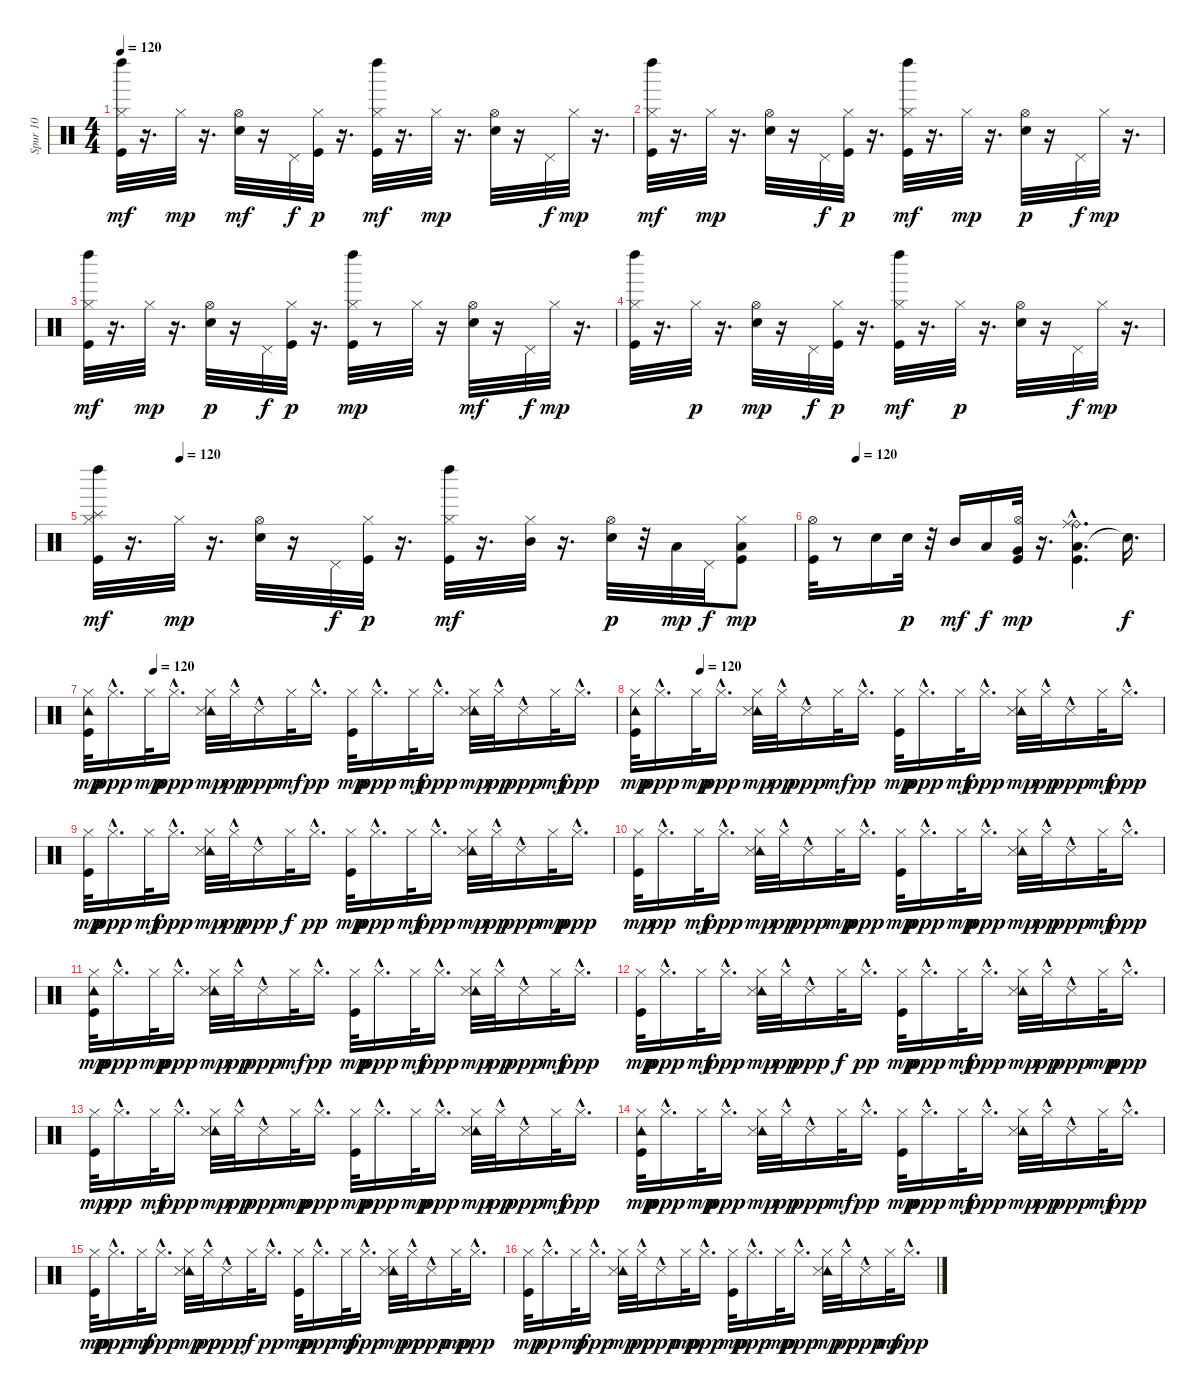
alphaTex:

\track ("Spur 10" "Spur 10") {instrument percussion}
\staff {score}
\articulation defaults
\ts (4 4)
\tempo 120
\clef neutral
\ks c
("Hi-Hat (closed)" "Left Maraca (hit)" "Kick (hit)").32{dy mf} r.16{d} "Hi-Hat (closed)".32{dy mp} r.16{d} ("Hi-Hat (open)" "Electric Snare (hit)").32{dy mf} r.16 "Pedal Hi-Hat (hit)".32{dy f} ("Hi-Hat (closed)" "Kick (hit)").32{dy p} r.16{d} ("Hi-Hat (closed)" "Left Maraca (hit)" "Kick (hit)").32{dy mf} r.16{d} "Hi-Hat (closed)".32{dy mp} r.16{d} ("Hi-Hat (open)" "Electric Snare (hit)").32 r.16 "Pedal Hi-Hat (hit)".32{dy f} "Hi-Hat (closed)".32{dy mp} r.16{d} |
("Hi-Hat (closed)" "Left Maraca (hit)" "Kick (hit)").32{dy mf} r.16{d} "Hi-Hat (closed)".32{dy mp} r.16{d} ("Hi-Hat (open)" "Electric Snare (hit)").32 r.16 "Pedal Hi-Hat (hit)".32{dy f} ("Hi-Hat (closed)" "Kick (hit)").32{dy p} r.16{d} ("Hi-Hat (closed)" "Left Maraca (hit)" "Kick (hit)").32{dy mf} r.16{d} "Hi-Hat (closed)".32{dy mp} r.16{d} ("Hi-Hat (open)" "Electric Snare (hit)").32{dy p} r.16 "Pedal Hi-Hat (hit)".32{dy f} "Hi-Hat (closed)".32{dy mp} r.16{d} |
("Hi-Hat (closed)" "Left Maraca (hit)" "Kick (hit)").32{dy mf} r.16{d} "Hi-Hat (closed)".32{dy mp} r.16{d} ("Hi-Hat (open)" "Electric Snare (hit)").32{dy p} r.16 "Pedal Hi-Hat (hit)".32{dy f} ("Hi-Hat (closed)" "Kick (hit)").32{dy p} r.16{d} ("Hi-Hat (closed)" "Left Maraca (hit)" "Kick (hit)").32{dy mp} r.8 "Hi-Hat (closed)".32 r.16 ("Hi-Hat (open)" "Electric Snare (hit)").32{dy mf} r.16 "Pedal Hi-Hat (hit)".32{dy f} "Hi-Hat (closed)".32{dy mp} r.16{d} |
("Hi-Hat (closed)" "Left Maraca (hit)" "Kick (hit)").32 r.16{d} "Hi-Hat (closed)".32{dy p} r.16{d} ("Hi-Hat (open)" "Electric Snare (hit)").32{dy mp} r.16 "Pedal Hi-Hat (hit)".32{dy f} ("Hi-Hat (closed)" "Kick (hit)").32{dy p} r.16{d} ("Hi-Hat (closed)" "Left Maraca (hit)" "Kick (hit)").32{dy mf} r.16{d} "Hi-Hat (closed)".32{dy p} r.16{d} ("Hi-Hat (open)" "Electric Snare (hit)").32 r.16 "Pedal Hi-Hat (hit)".32{dy f} "Hi-Hat (closed)".32{dy mp} r.16{d} |
\tempo (120 0.125)
("Hi-Hat (closed)" "Left Maraca (hit)" "Kick (hit)" "Splash (hit)").32{dy mf} r.16{d} "Hi-Hat (closed)".32{dy mp} r.16{d} ("Hi-Hat (open)" "Electric Snare (hit)").32 r.16 "Pedal Hi-Hat (hit)".32{dy f} ("Hi-Hat (closed)" "Kick (hit)").32{dy p} r.16{d} ("Hi-Hat (closed)" "Left Maraca (hit)" "Kick (hit)").32{dy mf} r.16{d} ("Hi-Hat (closed)" "Mid Tom (hit)").32 r.16{d} ("Hi-Hat (open)" "Electric Snare (hit)").32{dy p} r.32 "Low Tom (hit)".32{dy mp} "Pedal Hi-Hat (hit)".32{dy f} ("Hi-Hat (closed)" "Low Tom (hit)" "Kick (hit)").8{dy mp} |
\tempo (120 0.125)
("Hi-Hat (open)" "Kick (hit)").32 r.8 "Snare (hit) 2".16 "Electric Snare (hit)".32{dy p} r.32 "Mid Tom (hit)".16{dy mf} "Low Tom (hit)".16{dy f} ("Hi-Hat (open)" "Very Low Tom (hit)" "Kick (hit)").32{dy mp} r.16{d} ("Low Floor Tom (hit)"{hac} "Ride (bell)" "Ride (middle)" "Kick (hit)").4{d} "Snare (hit)"{t}.16{d dy f} |
\tempo (120 0.125)
("Tambourine (hit)" "Hi-Hat (closed)" "Kick (hit)").32{dy mp} "Hi-Hat (closed)"{hac}.16{d dy ppp} "Hi-Hat (closed)".32{dy mp} "Hi-Hat (closed)"{hac}.16{d dy ppp} ("Tambourine (hit)" "Snare (side stick) 3" "Hi-Hat (closed)").32{dy mp} "Hi-Hat (closed)"{hac}.32{dy pp} "Snare (side stick) 3"{hac}.16{dy ppp} "Hi-Hat (closed)".32{dy mf} "Hi-Hat (closed)"{hac}.16{d dy pp} ("Hi-Hat (closed)" "Kick (hit)").32{dy mp} "Hi-Hat (closed)"{hac}.16{d dy ppp} "Hi-Hat (closed)".32{dy mf} "Hi-Hat (closed)"{hac}.16{d dy ppp} ("Tambourine (hit)" "Snare (side stick) 3" "Hi-Hat (closed)").32{dy mp} "Hi-Hat (closed)"{hac}.32{dy pp} "Snare (side stick) 3"{hac}.16{dy ppp} "Hi-Hat (closed)".32{dy mf} "Hi-Hat (closed)"{hac}.16{d dy ppp} |
\tempo (120 0.125)
("Tambourine (hit)" "Hi-Hat (closed)" "Kick (hit)").32{dy mp} "Hi-Hat (closed)"{hac}.16{d dy ppp} "Hi-Hat (closed)".32{dy mp} "Hi-Hat (closed)"{hac}.16{d dy ppp} ("Tambourine (hit)" "Snare (side stick) 3" "Hi-Hat (closed)").32{dy mp} "Hi-Hat (closed)"{hac}.32{dy pp} "Snare (side stick) 3"{hac}.16{dy ppp} "Hi-Hat (closed)".32{dy mf} "Hi-Hat (closed)"{hac}.16{d dy pp} ("Hi-Hat (closed)" "Kick (hit)").32{dy mp} "Hi-Hat (closed)"{hac}.16{d dy ppp} "Hi-Hat (closed)".32{dy mf} "Hi-Hat (closed)"{hac}.16{d dy ppp} ("Tambourine (hit)" "Snare (side stick) 3" "Hi-Hat (closed)").32{dy mp} "Hi-Hat (closed)"{hac}.32{dy pp} "Snare (side stick) 3"{hac}.16{dy ppp} "Hi-Hat (closed)".32{dy mf} "Hi-Hat (closed)"{hac}.16{d dy ppp} |
("Hi-Hat (closed)" "Kick (hit)").32{dy mp} "Hi-Hat (closed)"{hac}.16{d dy ppp} "Hi-Hat (closed)".32{dy mf} "Hi-Hat (closed)"{hac}.16{d dy ppp} ("Tambourine (hit)" "Snare (side stick) 3" "Hi-Hat (closed)").32{dy mp} "Hi-Hat (closed)"{hac}.32{dy pp} "Snare (side stick) 3"{hac}.16{dy ppp} "Hi-Hat (closed)".32{dy f} "Hi-Hat (closed)"{hac}.16{d dy pp} ("Hi-Hat (closed)" "Kick (hit)").32{dy mp} "Hi-Hat (closed)"{hac}.16{d dy ppp} "Hi-Hat (closed)".32{dy mf} "Hi-Hat (closed)"{hac}.16{d dy ppp} ("Tambourine (hit)" "Snare (side stick) 3" "Hi-Hat (closed)").32{dy mp} "Hi-Hat (closed)"{hac}.32{dy pp} "Snare (side stick) 3"{hac}.16{dy ppp} "Hi-Hat (closed)".32{dy mp} "Hi-Hat (closed)"{hac}.16{d dy ppp} |
("Hi-Hat (closed)" "Kick (hit)").32{dy mp} "Hi-Hat (closed)"{hac}.16{d dy pp} "Hi-Hat (closed)".32{dy mf} "Hi-Hat (closed)"{hac}.16{d dy ppp} ("Tambourine (hit)" "Snare (side stick) 3" "Hi-Hat (closed)").32{dy mp} "Hi-Hat (closed)"{hac}.32{dy pp} "Snare (side stick) 3"{hac}.16{dy ppp} "Hi-Hat (closed)".32{dy mp} "Hi-Hat (closed)"{hac}.16{d dy ppp} ("Hi-Hat (closed)" "Kick (hit)").32{dy mp} "Hi-Hat (closed)"{hac}.16{d dy ppp} "Hi-Hat (closed)".32{dy mp} "Hi-Hat (closed)"{hac}.16{d dy ppp} ("Tambourine (hit)" "Snare (side stick) 3" "Hi-Hat (closed)").32{dy mp} "Hi-Hat (closed)"{hac}.32{dy pp} "Snare (side stick) 3"{hac}.16{dy ppp} "Hi-Hat (closed)".32{dy mf} "Hi-Hat (closed)"{hac}.16{d dy ppp} |
("Tambourine (hit)" "Hi-Hat (closed)" "Kick (hit)").32{dy mp} "Hi-Hat (closed)"{hac}.16{d dy ppp} "Hi-Hat (closed)".32{dy mp} "Hi-Hat (closed)"{hac}.16{d dy ppp} ("Tambourine (hit)" "Snare (side stick) 3" "Hi-Hat (closed)").32{dy mp} "Hi-Hat (closed)"{hac}.32{dy pp} "Snare (side stick) 3"{hac}.16{dy ppp} "Hi-Hat (closed)".32{dy mf} "Hi-Hat (closed)"{hac}.16{d dy pp} ("Hi-Hat (closed)" "Kick (hit)").32{dy mp} "Hi-Hat (closed)"{hac}.16{d dy ppp} "Hi-Hat (closed)".32{dy mf} "Hi-Hat (closed)"{hac}.16{d dy ppp} ("Tambourine (hit)" "Snare (side stick) 3" "Hi-Hat (closed)").32{dy mp} "Hi-Hat (closed)"{hac}.32{dy pp} "Snare (side stick) 3"{hac}.16{dy ppp} "Hi-Hat (closed)".32{dy mf} "Hi-Hat (closed)"{hac}.16{d dy ppp} |
("Hi-Hat (closed)" "Kick (hit)").32{dy mp} "Hi-Hat (closed)"{hac}.16{d dy ppp} "Hi-Hat (closed)".32{dy mf} "Hi-Hat (closed)"{hac}.16{d dy ppp} ("Tambourine (hit)" "Snare (side stick) 3" "Hi-Hat (closed)").32{dy mp} "Hi-Hat (closed)"{hac}.32{dy pp} "Snare (side stick) 3"{hac}.16{dy ppp} "Hi-Hat (closed)".32{dy f} "Hi-Hat (closed)"{hac}.16{d dy pp} ("Hi-Hat (closed)" "Kick (hit)").32{dy mp} "Hi-Hat (closed)"{hac}.16{d dy ppp} "Hi-Hat (closed)".32{dy mf} "Hi-Hat (closed)"{hac}.16{d dy ppp} ("Tambourine (hit)" "Snare (side stick) 3" "Hi-Hat (closed)").32{dy mp} "Hi-Hat (closed)"{hac}.32{dy pp} "Snare (side stick) 3"{hac}.16{dy ppp} "Hi-Hat (closed)".32{dy mp} "Hi-Hat (closed)"{hac}.16{d dy ppp} |
("Hi-Hat (closed)" "Kick (hit)").32{dy mp} "Hi-Hat (closed)"{hac}.16{d dy pp} "Hi-Hat (closed)".32{dy mf} "Hi-Hat (closed)"{hac}.16{d dy ppp} ("Tambourine (hit)" "Snare (side stick) 3" "Hi-Hat (closed)").32{dy mp} "Hi-Hat (closed)"{hac}.32{dy pp} "Snare (side stick) 3"{hac}.16{dy ppp} "Hi-Hat (closed)".32{dy mp} "Hi-Hat (closed)"{hac}.16{d dy ppp} ("Hi-Hat (closed)" "Kick (hit)").32{dy mp} "Hi-Hat (closed)"{hac}.16{d dy ppp} "Hi-Hat (closed)".32{dy mp} "Hi-Hat (closed)"{hac}.16{d dy ppp} ("Tambourine (hit)" "Snare (side stick) 3" "Hi-Hat (closed)").32{dy mp} "Hi-Hat (closed)"{hac}.32{dy pp} "Snare (side stick) 3"{hac}.16{dy ppp} "Hi-Hat (closed)".32{dy mf} "Hi-Hat (closed)"{hac}.16{d dy ppp} |
("Tambourine (hit)" "Hi-Hat (closed)" "Kick (hit)").32{dy mp} "Hi-Hat (closed)"{hac}.16{d dy ppp} "Hi-Hat (closed)".32{dy mp} "Hi-Hat (closed)"{hac}.16{d dy ppp} ("Tambourine (hit)" "Snare (side stick) 3" "Hi-Hat (closed)").32{dy mp} "Hi-Hat (closed)"{hac}.32{dy pp} "Snare (side stick) 3"{hac}.16{dy ppp} "Hi-Hat (closed)".32{dy mf} "Hi-Hat (closed)"{hac}.16{d dy pp} ("Hi-Hat (closed)" "Kick (hit)").32{dy mp} "Hi-Hat (closed)"{hac}.16{d dy ppp} "Hi-Hat (closed)".32{dy mf} "Hi-Hat (closed)"{hac}.16{d dy ppp} ("Tambourine (hit)" "Snare (side stick) 3" "Hi-Hat (closed)").32{dy mp} "Hi-Hat (closed)"{hac}.32{dy pp} "Snare (side stick) 3"{hac}.16{dy ppp} "Hi-Hat (closed)".32{dy mf} "Hi-Hat (closed)"{hac}.16{d dy ppp} |
("Hi-Hat (closed)" "Kick (hit)").32{dy mp} "Hi-Hat (closed)"{hac}.16{d dy ppp} "Hi-Hat (closed)".32{dy mf} "Hi-Hat (closed)"{hac}.16{d dy ppp} ("Tambourine (hit)" "Snare (side stick) 3" "Hi-Hat (closed)").32{dy mp} "Hi-Hat (closed)"{hac}.32{dy pp} "Snare (side stick) 3"{hac}.16{dy ppp} "Hi-Hat (closed)".32{dy f} "Hi-Hat (closed)"{hac}.16{d dy pp} ("Hi-Hat (closed)" "Kick (hit)").32{dy mp} "Hi-Hat (closed)"{hac}.16{d dy ppp} "Hi-Hat (closed)".32{dy mf} "Hi-Hat (closed)"{hac}.16{d dy ppp} ("Tambourine (hit)" "Snare (side stick) 3" "Hi-Hat (closed)").32{dy mp} "Hi-Hat (closed)"{hac}.32{dy pp} "Snare (side stick) 3"{hac}.16{dy ppp} "Hi-Hat (closed)".32{dy mp} "Hi-Hat (closed)"{hac}.16{d dy ppp} |
("Hi-Hat (closed)" "Kick (hit)").32{dy mp} "Hi-Hat (closed)"{hac}.16{d dy pp} "Hi-Hat (closed)".32{dy mf} "Hi-Hat (closed)"{hac}.16{d dy ppp} ("Tambourine (hit)" "Snare (side stick) 3" "Hi-Hat (closed)").32{dy mp} "Hi-Hat (closed)"{hac}.32{dy pp} "Snare (side stick) 3"{hac}.16{dy ppp} "Hi-Hat (closed)".32{dy mp} "Hi-Hat (closed)"{hac}.16{d dy ppp} ("Hi-Hat (closed)" "Kick (hit)").32{dy mp} "Hi-Hat (closed)"{hac}.16{d dy ppp} "Hi-Hat (closed)".32{dy mp} "Hi-Hat (closed)"{hac}.16{d dy ppp} ("Tambourine (hit)" "Snare (side stick) 3" "Hi-Hat (closed)").32{dy mp} "Hi-Hat (closed)"{hac}.32{dy pp} "Snare (side stick) 3"{hac}.16{dy ppp} "Hi-Hat (closed)".32{dy mf} "Hi-Hat (closed)"{hac}.16{d dy ppp}
